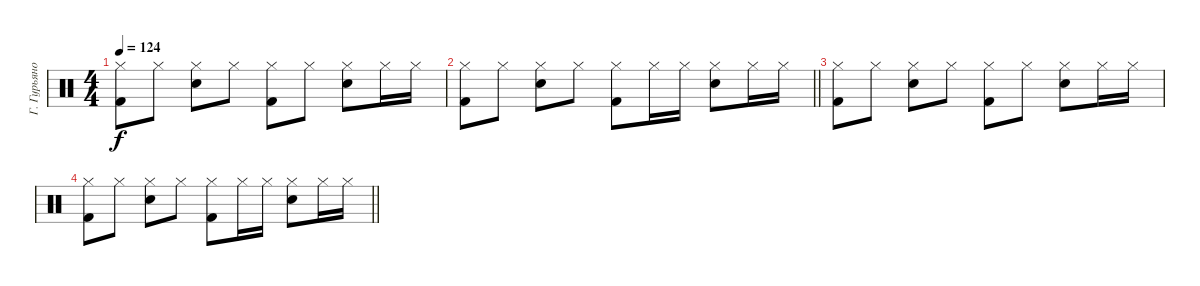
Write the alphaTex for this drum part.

\track ("Г. Гурьянов" "Г. Гурьяно") {instrument percussion}
\staff
\articulation defaults
\ts (4 4)
\tempo 124
\clef neutral
\ks c
("Hi-Hat (closed)" "Kick (hit) 2").8{dy f} "Hi-Hat (closed)".8 ("Hi-Hat (closed)" "Snare (hit) 2").8 "Hi-Hat (closed)".8 ("Hi-Hat (closed)" "Kick (hit) 2").8 "Hi-Hat (closed)".8 ("Hi-Hat (closed)" "Snare (hit) 2").8 "Hi-Hat (closed)".16 "Hi-Hat (closed)".16 |
\barLineRight lightlight
("Hi-Hat (closed)" "Kick (hit) 2").8 "Hi-Hat (closed)".8 ("Hi-Hat (closed)" "Snare (hit) 2").8 "Hi-Hat (closed)".8 ("Hi-Hat (closed)" "Kick (hit) 2").8 "Hi-Hat (closed)".16 "Hi-Hat (closed)".16 ("Hi-Hat (closed)" "Snare (hit) 2").8 "Hi-Hat (closed)".16 "Hi-Hat (closed)".16 |
("Hi-Hat (closed)" "Kick (hit) 2").8 "Hi-Hat (closed)".8 ("Hi-Hat (closed)" "Snare (hit) 2").8 "Hi-Hat (closed)".8 ("Hi-Hat (closed)" "Kick (hit) 2").8 "Hi-Hat (closed)".8 ("Hi-Hat (closed)" "Snare (hit) 2").8 "Hi-Hat (closed)".16 "Hi-Hat (closed)".16 |
\barLineRight lightlight
("Hi-Hat (closed)" "Kick (hit) 2").8 "Hi-Hat (closed)".8 ("Hi-Hat (closed)" "Snare (hit) 2").8 "Hi-Hat (closed)".8 ("Hi-Hat (closed)" "Kick (hit) 2").8 "Hi-Hat (closed)".16 "Hi-Hat (closed)".16 ("Hi-Hat (closed)" "Snare (hit) 2").8 "Hi-Hat (closed)".16 "Hi-Hat (closed)".16
